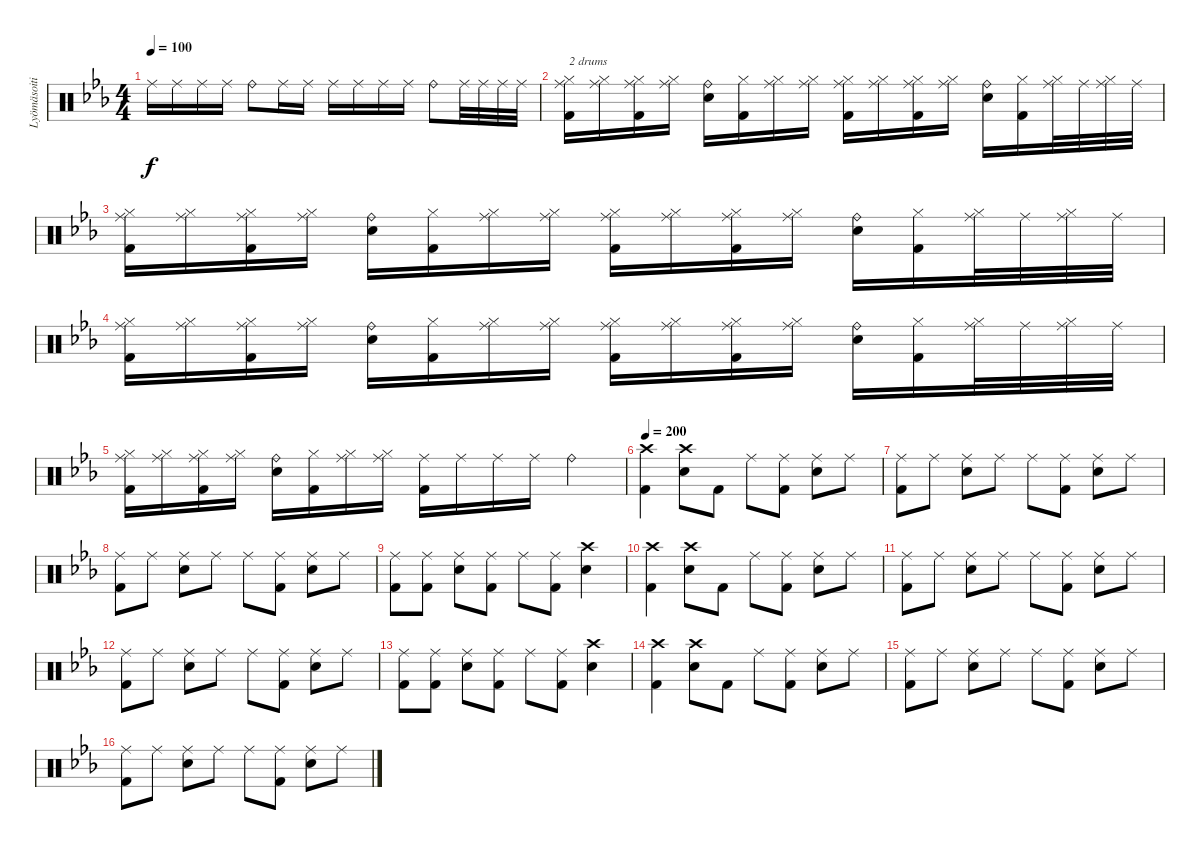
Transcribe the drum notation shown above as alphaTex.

\track ("Lyömäsoitin" "Lyömäsoiti") {instrument percussion}
\staff {score}
\articulation defaults
\ts (4 4)
\tempo 100
\clef neutral
\ks eb "Ride (middle)".16{dy f} "Ride (middle)".16 "Ride (middle)".16 "Ride (middle)".16 "Ride (bell)".8 "Ride (middle)".16 "Ride (middle)".16 "Ride (middle)".16 "Ride (middle)".16 "Ride (middle)".16 "Ride (middle)".16 "Ride (bell)".8 "Ride (middle)".32 "Ride (middle)".32 "Ride (middle)".32 "Ride (middle)".32
|
("Ride (middle)" "Hi-Hat (closed)" "Kick (hit) 2").16{txt "2 drums"} ("Ride (middle)" "Hi-Hat (closed)").16 ("Ride (middle)" "Hi-Hat (closed)" "Kick (hit) 2").16 ("Ride (middle)" "Hi-Hat (closed)").16 ("Ride (bell)" "Snare (hit) 2").16 ("Hi-Hat (closed)" "Kick (hit) 2").16 ("Ride (middle)" "Hi-Hat (closed)").16 ("Ride (middle)" "Hi-Hat (closed)").16 ("Ride (middle)" "Hi-Hat (closed)" "Kick (hit) 2").16 ("Ride (middle)" "Hi-Hat (closed)").16 ("Ride (middle)" "Hi-Hat (closed)" "Kick (hit) 2").16 ("Ride (middle)" "Hi-Hat (closed)").16 ("Ride (bell)" "Snare (hit) 2").16 ("Hi-Hat (closed)" "Kick (hit) 2").16 ("Ride (middle)" "Hi-Hat (closed)").32 "Ride (middle)".32 ("Ride (middle)" "Hi-Hat (closed)").32 "Ride (middle)".32 |
("Ride (middle)" "Hi-Hat (closed)" "Kick (hit) 2").16 ("Ride (middle)" "Hi-Hat (closed)").16 ("Ride (middle)" "Hi-Hat (closed)" "Kick (hit) 2").16 ("Ride (middle)" "Hi-Hat (closed)").16 ("Ride (bell)" "Snare (hit) 2").16 ("Hi-Hat (closed)" "Kick (hit) 2").16 ("Ride (middle)" "Hi-Hat (closed)").16 ("Ride (middle)" "Hi-Hat (closed)").16 ("Ride (middle)" "Hi-Hat (closed)" "Kick (hit) 2").16 ("Ride (middle)" "Hi-Hat (closed)").16 ("Ride (middle)" "Hi-Hat (closed)" "Kick (hit) 2").16 ("Ride (middle)" "Hi-Hat (closed)").16 ("Ride (bell)" "Snare (hit) 2").16 ("Hi-Hat (closed)" "Kick (hit) 2").16 ("Ride (middle)" "Hi-Hat (closed)").32 "Ride (middle)".32 ("Ride (middle)" "Hi-Hat (closed)").32 "Ride (middle)".32 |
("Ride (middle)" "Hi-Hat (closed)" "Kick (hit) 2").16 ("Ride (middle)" "Hi-Hat (closed)").16 ("Ride (middle)" "Hi-Hat (closed)" "Kick (hit) 2").16 ("Ride (middle)" "Hi-Hat (closed)").16 ("Ride (bell)" "Snare (hit) 2").16 ("Hi-Hat (closed)" "Kick (hit) 2").16 ("Ride (middle)" "Hi-Hat (closed)").16 ("Ride (middle)" "Hi-Hat (closed)").16 ("Ride (middle)" "Hi-Hat (closed)" "Kick (hit) 2").16 ("Ride (middle)" "Hi-Hat (closed)").16 ("Ride (middle)" "Hi-Hat (closed)" "Kick (hit) 2").16 ("Ride (middle)" "Hi-Hat (closed)").16 ("Ride (bell)" "Snare (hit) 2").16 ("Hi-Hat (closed)" "Kick (hit) 2").16 ("Ride (middle)" "Hi-Hat (closed)").32 "Ride (middle)".32 ("Ride (middle)" "Hi-Hat (closed)").32 "Ride (middle)".32 |
("Ride (middle)" "Hi-Hat (closed)" "Kick (hit) 2").16 ("Ride (middle)" "Hi-Hat (closed)").16 ("Ride (middle)" "Hi-Hat (closed)" "Kick (hit) 2").16 ("Ride (middle)" "Hi-Hat (closed)").16 ("Ride (bell)" "Snare (hit) 2").16 ("Hi-Hat (closed)" "Kick (hit) 2").16 ("Ride (middle)" "Hi-Hat (closed)").16 ("Ride (middle)" "Hi-Hat (closed)").16 ("Ride (middle)" "Kick (hit) 2").16 "Ride (middle)".16 "Ride (middle)".16 "Ride (middle)".16 "Ride (bell)".4 |
\tempo 200
("Crash high (hit)" "Kick (hit) 2").4 ("Crash high (hit)" "Snare (hit) 2").8 "Kick (hit) 2".8 "Ride (middle)".8 ("Ride (middle)" "Kick (hit) 2").8 ("Ride (middle)" "Snare (hit) 2").8 "Ride (middle)".8 |
("Ride (middle)" "Kick (hit) 2").8 "Ride (middle)".8 ("Ride (middle)" "Snare (hit) 2").8 "Ride (middle)".8 "Ride (middle)".8 ("Ride (middle)" "Kick (hit) 2").8 ("Ride (middle)" "Snare (hit) 2").8 "Ride (middle)".8 |
("Ride (middle)" "Kick (hit) 2").8 "Ride (middle)".8 ("Ride (middle)" "Snare (hit) 2").8 "Ride (middle)".8 "Ride (middle)".8 ("Ride (middle)" "Kick (hit) 2").8 ("Ride (middle)" "Snare (hit) 2").8 "Ride (middle)".8 |
("Ride (middle)" "Kick (hit) 2").8 ("Ride (middle)" "Kick (hit) 2").8 ("Ride (middle)" "Snare (hit) 2").8 ("Ride (middle)" "Kick (hit) 2").8 "Ride (middle)".8 ("Ride (middle)" "Kick (hit) 2").8 ("Crash high (hit)" "Snare (hit) 2").4 |
("Crash high (hit)" "Kick (hit) 2").4 ("Crash high (hit)" "Snare (hit) 2").8 "Kick (hit) 2".8 "Ride (middle)".8 ("Ride (middle)" "Kick (hit) 2").8 ("Ride (middle)" "Snare (hit) 2").8 "Ride (middle)".8 |
("Ride (middle)" "Kick (hit) 2").8 "Ride (middle)".8 ("Ride (middle)" "Snare (hit) 2").8 "Ride (middle)".8 "Ride (middle)".8 ("Ride (middle)" "Kick (hit) 2").8 ("Ride (middle)" "Snare (hit) 2").8 "Ride (middle)".8 |
("Ride (middle)" "Kick (hit) 2").8 "Ride (middle)".8 ("Ride (middle)" "Snare (hit) 2").8 "Ride (middle)".8 "Ride (middle)".8 ("Ride (middle)" "Kick (hit) 2").8 ("Ride (middle)" "Snare (hit) 2").8 "Ride (middle)".8 |
("Ride (middle)" "Kick (hit) 2").8 ("Ride (middle)" "Kick (hit) 2").8 ("Ride (middle)" "Snare (hit) 2").8 ("Ride (middle)" "Kick (hit) 2").8 "Ride (middle)".8 ("Ride (middle)" "Kick (hit) 2").8 ("Crash high (hit)" "Snare (hit) 2").4 |
("Crash high (hit)" "Kick (hit) 2").4 ("Crash high (hit)" "Snare (hit) 2").8 "Kick (hit) 2".8 "Ride (middle)".8 ("Ride (middle)" "Kick (hit) 2").8 ("Ride (middle)" "Snare (hit) 2").8 "Ride (middle)".8 |
("Ride (middle)" "Kick (hit) 2").8 "Ride (middle)".8 ("Ride (middle)" "Snare (hit) 2").8 "Ride (middle)".8 "Ride (middle)".8 ("Ride (middle)" "Kick (hit) 2").8 ("Ride (middle)" "Snare (hit) 2").8 "Ride (middle)".8 |
("Ride (middle)" "Kick (hit) 2").8 "Ride (middle)".8 ("Ride (middle)" "Snare (hit) 2").8 "Ride (middle)".8 "Ride (middle)".8 ("Ride (middle)" "Kick (hit) 2").8 ("Ride (middle)" "Snare (hit) 2").8 "Ride (middle)".8
